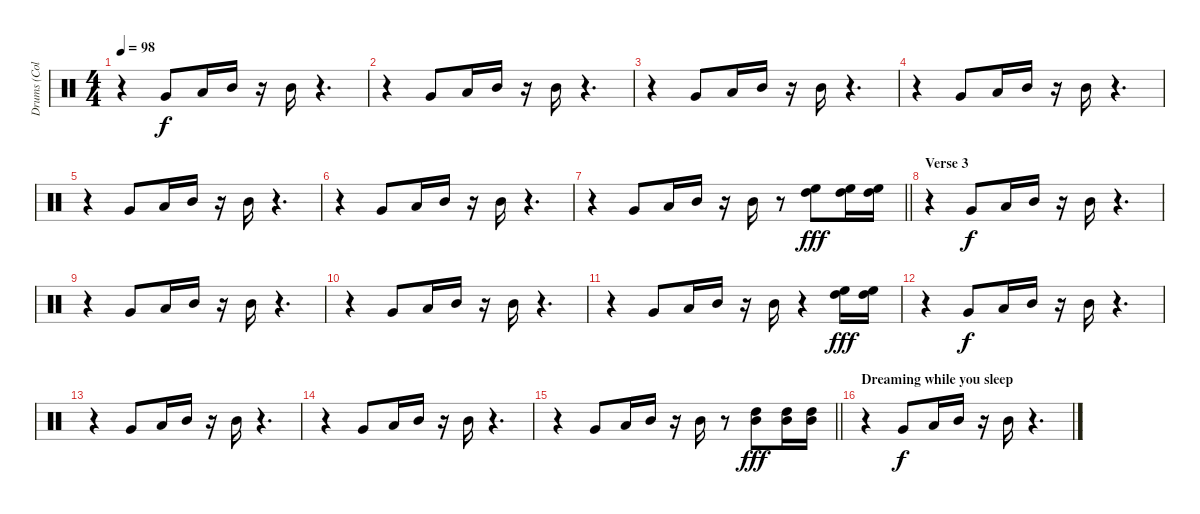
\track ("Drums (Collins)" "Drums (Col") {instrument percussion}
\staff {score}
\articulation defaults
\ts (4 4)
\tempo 98
\clef neutral
\ks c
r.4{dy f} "Very Low Tom (hit)".8 "Low Tom (hit)".16 "Mid Tom (hit)".16 r.16 "Mid Tom (hit)".16 r.4{d} |
r.4 "Very Low Tom (hit)".8 "Low Tom (hit)".16 "Mid Tom (hit)".16 r.16 "Mid Tom (hit)".16 r.4{d} |
r.4 "Very Low Tom (hit)".8 "Low Tom (hit)".16 "Mid Tom (hit)".16 r.16 "Mid Tom (hit)".16 r.4{d} |
r.4 "Very Low Tom (hit)".8 "Low Tom (hit)".16 "Mid Tom (hit)".16 r.16 "Mid Tom (hit)".16 r.4{d} |
r.4 "Very Low Tom (hit)".8 "Low Tom (hit)".16 "Mid Tom (hit)".16 r.16 "Mid Tom (hit)".16 r.4{d} |
r.4 "Very Low Tom (hit)".8 "Low Tom (hit)".16 "Mid Tom (hit)".16 r.16 "Mid Tom (hit)".16 r.4{d} |
\barLineRight lightlight
r.4 "Very Low Tom (hit)".8 "Low Tom (hit)".16 "Mid Tom (hit)".16 r.16 "Mid Tom (hit)".16 r.8 ("High Tom (hit)" "High Floor Tom (hit)").8{dy fff} ("High Floor Tom (hit)" "High Tom (hit)").16 ("High Floor Tom (hit)" "High Tom (hit)").16 |
\section ("" "Verse 3")
r.4 "Very Low Tom (hit)".8{dy f} "Low Tom (hit)".16 "Mid Tom (hit)".16 r.16 "Mid Tom (hit)".16 r.4{d} |
r.4 "Very Low Tom (hit)".8 "Low Tom (hit)".16 "Mid Tom (hit)".16 r.16 "Mid Tom (hit)".16 r.4{d} |
r.4 "Very Low Tom (hit)".8 "Low Tom (hit)".16 "Mid Tom (hit)".16 r.16 "Mid Tom (hit)".16 r.4{d} |
r.4 "Very Low Tom (hit)".8 "Low Tom (hit)".16 "Mid Tom (hit)".16 r.16 "Mid Tom (hit)".16 r.4 ("High Floor Tom (hit)" "High Tom (hit)").16{dy fff} ("High Tom (hit)" "High Floor Tom (hit)").16 |
r.4 "Very Low Tom (hit)".8{dy f} "Low Tom (hit)".16 "Mid Tom (hit)".16 r.16 "Mid Tom (hit)".16 r.4{d} |
r.4 "Very Low Tom (hit)".8 "Low Tom (hit)".16 "Mid Tom (hit)".16 r.16 "Mid Tom (hit)".16 r.4{d} |
r.4 "Very Low Tom (hit)".8 "Low Tom (hit)".16 "Mid Tom (hit)".16 r.16 "Mid Tom (hit)".16 r.4{d} |
\barLineRight lightlight
r.4 "Very Low Tom (hit)".8 "Low Tom (hit)".16 "Mid Tom (hit)".16 r.16 "Mid Tom (hit)".16 r.8 ("Mid Tom (hit)" "High Tom (hit)").8{dy fff} ("Mid Tom (hit)" "High Tom (hit)").16 ("Mid Tom (hit)" "High Tom (hit)").16 |
\section ("" "Dreaming while you sleep")
r.4 "Very Low Tom (hit)".8{dy f} "Low Tom (hit)".16 "Mid Tom (hit)".16 r.16 "Mid Tom (hit)".16 r.4{d}
